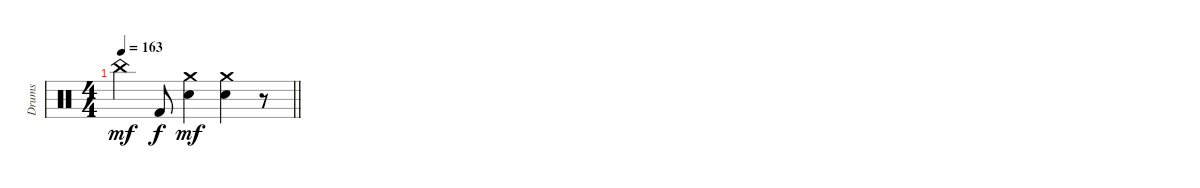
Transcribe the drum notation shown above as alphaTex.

\track ("Drums" "Drums") {instrument percussion}
\staff {score}
\articulation defaults
\ts (4 4)
\tempo 163
\clef neutral
\barLineRight lightlight
\ks c "China (hit)".4{dy mf} "Kick (hit) 2".8{dy f}
("Crash medium (hit)" "Electric Snare (hit)").4{dy mf} ("Crash medium (hit)" "Electric Snare (hit)").4 r.8
